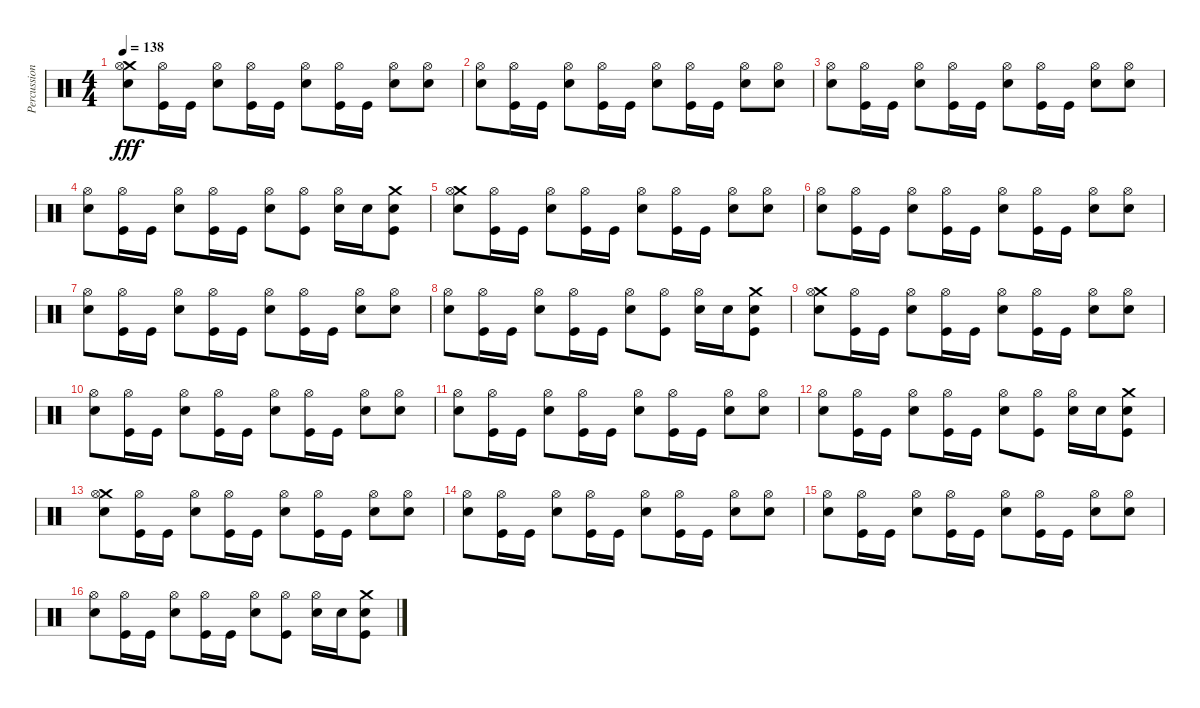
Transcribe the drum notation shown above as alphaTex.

\track ("Percussion" "Percussion") {instrument percussion}
\staff {score}
\articulation defaults
\ts (4 4)
\tempo 138
\clef neutral
\ks c
("Crash medium (hit)" "Snare (hit) 2" "Hi-Hat (open)").8{dy fff} ("Kick (hit)" "Hi-Hat (open)").16 "Kick (hit)".16 ("Snare (hit) 2" "Hi-Hat (open)").8 ("Kick (hit)" "Hi-Hat (open)").16 "Kick (hit)".16 ("Snare (hit) 2" "Hi-Hat (open)").8 ("Kick (hit)" "Hi-Hat (open)").16 "Kick (hit)".16 ("Snare (hit) 2" "Hi-Hat (open)").8 ("Snare (hit) 2" "Hi-Hat (open)").8 |
("Snare (hit) 2" "Hi-Hat (open)").8 ("Kick (hit)" "Hi-Hat (open)").16 "Kick (hit)".16 ("Snare (hit) 2" "Hi-Hat (open)").8 ("Kick (hit)" "Hi-Hat (open)").16 "Kick (hit)".16 ("Snare (hit) 2" "Hi-Hat (open)").8 ("Kick (hit)" "Hi-Hat (open)").16 "Kick (hit)".16 ("Snare (hit) 2" "Hi-Hat (open)").8 ("Snare (hit) 2" "Hi-Hat (open)").8 |
("Snare (hit) 2" "Hi-Hat (open)").8 ("Kick (hit)" "Hi-Hat (open)").16 "Kick (hit)".16 ("Snare (hit) 2" "Hi-Hat (open)").8 ("Kick (hit)" "Hi-Hat (open)").16 "Kick (hit)".16 ("Snare (hit) 2" "Hi-Hat (open)").8 ("Kick (hit)" "Hi-Hat (open)").16 "Kick (hit)".16 ("Snare (hit) 2" "Hi-Hat (open)").8 ("Snare (hit) 2" "Hi-Hat (open)").8 |
("Snare (hit) 2" "Hi-Hat (open)").8 ("Kick (hit)" "Hi-Hat (open)").16 "Kick (hit)".16 ("Snare (hit) 2" "Hi-Hat (open)").8 ("Kick (hit)" "Hi-Hat (open)").16 "Kick (hit)".16 ("Snare (hit) 2" "Hi-Hat (open)").8 ("Kick (hit)" "Hi-Hat (open)").8 ("Snare (hit) 2" "Hi-Hat (open)").16 "Snare (hit) 2".16 ("Crash medium (hit)" "Snare (hit) 2" "Kick (hit)").8 |
("Crash medium (hit)" "Snare (hit) 2" "Hi-Hat (open)").8 ("Kick (hit)" "Hi-Hat (open)").16 "Kick (hit)".16 ("Snare (hit) 2" "Hi-Hat (open)").8 ("Kick (hit)" "Hi-Hat (open)").16 "Kick (hit)".16 ("Snare (hit) 2" "Hi-Hat (open)").8 ("Kick (hit)" "Hi-Hat (open)").16 "Kick (hit)".16 ("Snare (hit) 2" "Hi-Hat (open)").8 ("Snare (hit) 2" "Hi-Hat (open)").8 |
("Snare (hit) 2" "Hi-Hat (open)").8 ("Kick (hit)" "Hi-Hat (open)").16 "Kick (hit)".16 ("Snare (hit) 2" "Hi-Hat (open)").8 ("Kick (hit)" "Hi-Hat (open)").16 "Kick (hit)".16 ("Snare (hit) 2" "Hi-Hat (open)").8 ("Kick (hit)" "Hi-Hat (open)").16 "Kick (hit)".16 ("Snare (hit) 2" "Hi-Hat (open)").8 ("Snare (hit) 2" "Hi-Hat (open)").8 |
("Snare (hit) 2" "Hi-Hat (open)").8 ("Kick (hit)" "Hi-Hat (open)").16 "Kick (hit)".16 ("Snare (hit) 2" "Hi-Hat (open)").8 ("Kick (hit)" "Hi-Hat (open)").16 "Kick (hit)".16 ("Snare (hit) 2" "Hi-Hat (open)").8 ("Kick (hit)" "Hi-Hat (open)").16 "Kick (hit)".16 ("Snare (hit) 2" "Hi-Hat (open)").8 ("Snare (hit) 2" "Hi-Hat (open)").8 |
("Snare (hit) 2" "Hi-Hat (open)").8 ("Kick (hit)" "Hi-Hat (open)").16 "Kick (hit)".16 ("Snare (hit) 2" "Hi-Hat (open)").8 ("Kick (hit)" "Hi-Hat (open)").16 "Kick (hit)".16 ("Snare (hit) 2" "Hi-Hat (open)").8 ("Kick (hit)" "Hi-Hat (open)").8 ("Snare (hit) 2" "Hi-Hat (open)").16 "Snare (hit) 2".16 ("Crash medium (hit)" "Snare (hit) 2" "Kick (hit)").8 |
("Crash medium (hit)" "Snare (hit) 2" "Hi-Hat (open)").8 ("Kick (hit)" "Hi-Hat (open)").16 "Kick (hit)".16 ("Snare (hit) 2" "Hi-Hat (open)").8 ("Kick (hit)" "Hi-Hat (open)").16 "Kick (hit)".16 ("Snare (hit) 2" "Hi-Hat (open)").8 ("Kick (hit)" "Hi-Hat (open)").16 "Kick (hit)".16 ("Snare (hit) 2" "Hi-Hat (open)").8 ("Snare (hit) 2" "Hi-Hat (open)").8 |
("Snare (hit) 2" "Hi-Hat (open)").8 ("Kick (hit)" "Hi-Hat (open)").16 "Kick (hit)".16 ("Snare (hit) 2" "Hi-Hat (open)").8 ("Kick (hit)" "Hi-Hat (open)").16 "Kick (hit)".16 ("Snare (hit) 2" "Hi-Hat (open)").8 ("Kick (hit)" "Hi-Hat (open)").16 "Kick (hit)".16 ("Snare (hit) 2" "Hi-Hat (open)").8 ("Snare (hit) 2" "Hi-Hat (open)").8 |
("Snare (hit) 2" "Hi-Hat (open)").8 ("Kick (hit)" "Hi-Hat (open)").16 "Kick (hit)".16 ("Snare (hit) 2" "Hi-Hat (open)").8 ("Kick (hit)" "Hi-Hat (open)").16 "Kick (hit)".16 ("Snare (hit) 2" "Hi-Hat (open)").8 ("Kick (hit)" "Hi-Hat (open)").16 "Kick (hit)".16 ("Snare (hit) 2" "Hi-Hat (open)").8 ("Snare (hit) 2" "Hi-Hat (open)").8 |
("Snare (hit) 2" "Hi-Hat (open)").8 ("Kick (hit)" "Hi-Hat (open)").16 "Kick (hit)".16 ("Snare (hit) 2" "Hi-Hat (open)").8 ("Kick (hit)" "Hi-Hat (open)").16 "Kick (hit)".16 ("Snare (hit) 2" "Hi-Hat (open)").8 ("Kick (hit)" "Hi-Hat (open)").8 ("Snare (hit) 2" "Hi-Hat (open)").16 "Snare (hit) 2".16 ("Crash medium (hit)" "Snare (hit) 2" "Kick (hit)").8 |
("Crash medium (hit)" "Snare (hit) 2" "Hi-Hat (open)").8 ("Kick (hit)" "Hi-Hat (open)").16 "Kick (hit)".16 ("Snare (hit) 2" "Hi-Hat (open)").8 ("Kick (hit)" "Hi-Hat (open)").16 "Kick (hit)".16 ("Snare (hit) 2" "Hi-Hat (open)").8 ("Kick (hit)" "Hi-Hat (open)").16 "Kick (hit)".16 ("Snare (hit) 2" "Hi-Hat (open)").8 ("Snare (hit) 2" "Hi-Hat (open)").8 |
("Snare (hit) 2" "Hi-Hat (open)").8 ("Kick (hit)" "Hi-Hat (open)").16 "Kick (hit)".16 ("Snare (hit) 2" "Hi-Hat (open)").8 ("Kick (hit)" "Hi-Hat (open)").16 "Kick (hit)".16 ("Snare (hit) 2" "Hi-Hat (open)").8 ("Kick (hit)" "Hi-Hat (open)").16 "Kick (hit)".16 ("Snare (hit) 2" "Hi-Hat (open)").8 ("Snare (hit) 2" "Hi-Hat (open)").8 |
("Snare (hit) 2" "Hi-Hat (open)").8 ("Kick (hit)" "Hi-Hat (open)").16 "Kick (hit)".16 ("Snare (hit) 2" "Hi-Hat (open)").8 ("Kick (hit)" "Hi-Hat (open)").16 "Kick (hit)".16 ("Snare (hit) 2" "Hi-Hat (open)").8 ("Kick (hit)" "Hi-Hat (open)").16 "Kick (hit)".16 ("Snare (hit) 2" "Hi-Hat (open)").8 ("Snare (hit) 2" "Hi-Hat (open)").8 |
("Snare (hit) 2" "Hi-Hat (open)").8 ("Kick (hit)" "Hi-Hat (open)").16 "Kick (hit)".16 ("Snare (hit) 2" "Hi-Hat (open)").8 ("Kick (hit)" "Hi-Hat (open)").16 "Kick (hit)".16 ("Snare (hit) 2" "Hi-Hat (open)").8 ("Kick (hit)" "Hi-Hat (open)").8 ("Snare (hit) 2" "Hi-Hat (open)").16 "Snare (hit) 2".16 ("Crash medium (hit)" "Snare (hit) 2" "Kick (hit)").8
